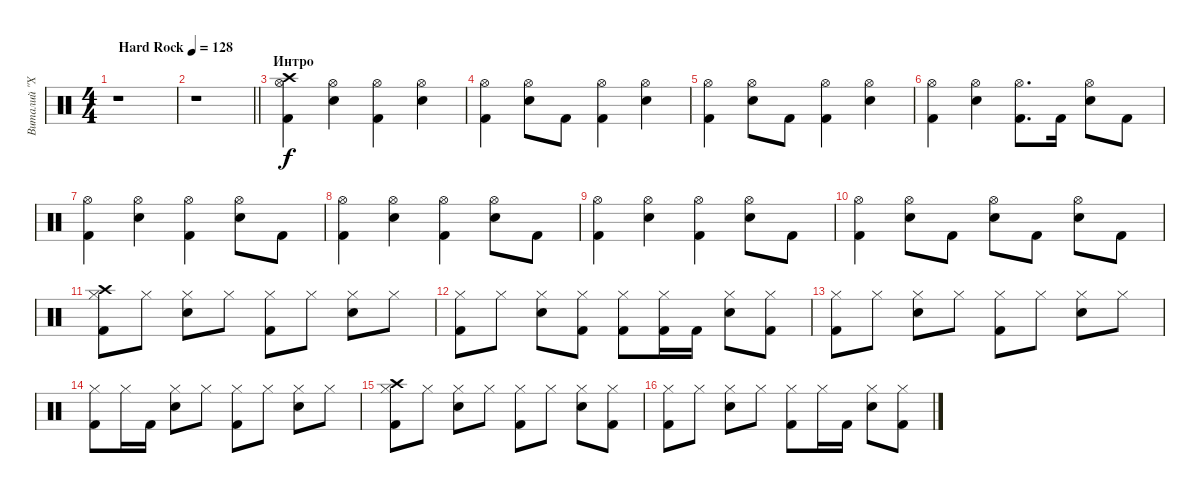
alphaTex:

\track ("Виталий \"Хамер\" Лядов" "Виталий \"Х") {instrument percussion}
\staff {score}
\articulation defaults
\ts (4 4)
\tempo (128 "Hard Rock")
\clef neutral
\ks c
r.1{dy f} |
\barLineRight lightlight
r.1 |
\section ("" "Интро")
("Kick (hit) 2" "Hi-Hat (open)" "Crash high (hit)").4 ("Electric Snare (hit)" "Hi-Hat (open)").4 ("Kick (hit) 2" "Hi-Hat (open)").4 ("Electric Snare (hit)" "Hi-Hat (open)").4 |
("Kick (hit) 2" "Hi-Hat (open)").4 ("Electric Snare (hit)" "Hi-Hat (open)").8 "Kick (hit) 2".8 ("Kick (hit) 2" "Hi-Hat (open)").4 ("Electric Snare (hit)" "Hi-Hat (open)").4 |
("Kick (hit) 2" "Hi-Hat (open)").4 ("Electric Snare (hit)" "Hi-Hat (open)").8 "Kick (hit) 2".8 ("Kick (hit) 2" "Hi-Hat (open)").4 ("Electric Snare (hit)" "Hi-Hat (open)").4 |
("Kick (hit) 2" "Hi-Hat (open)").4 ("Electric Snare (hit)" "Hi-Hat (open)").4 ("Kick (hit) 2" "Hi-Hat (open)").8{d} "Kick (hit) 2".16 ("Electric Snare (hit)" "Hi-Hat (open)").8 "Kick (hit) 2".8 |
("Kick (hit) 2" "Hi-Hat (open)").4 ("Electric Snare (hit)" "Hi-Hat (open)").4 ("Kick (hit) 2" "Hi-Hat (open)").4 ("Electric Snare (hit)" "Hi-Hat (open)").8 "Kick (hit) 2".8 |
("Kick (hit) 2" "Hi-Hat (open)").4 ("Electric Snare (hit)" "Hi-Hat (open)").4 ("Kick (hit) 2" "Hi-Hat (open)").4 ("Electric Snare (hit)" "Hi-Hat (open)").8 "Kick (hit) 2".8 |
("Kick (hit) 2" "Hi-Hat (open)").4 ("Electric Snare (hit)" "Hi-Hat (open)").4 ("Kick (hit) 2" "Hi-Hat (open)").4 ("Electric Snare (hit)" "Hi-Hat (open)").8 "Kick (hit) 2".8 |
("Kick (hit) 2" "Hi-Hat (open)").4 ("Electric Snare (hit)" "Hi-Hat (open)").8 "Kick (hit) 2".8 ("Electric Snare (hit)" "Hi-Hat (open)").8 "Kick (hit) 2".8 ("Electric Snare (hit)" "Hi-Hat (open)").8 "Kick (hit) 2".8 |
("Kick (hit) 2" "Hi-Hat (closed)" "Crash high (hit)").8 "Hi-Hat (closed)".8 ("Electric Snare (hit)" "Hi-Hat (closed)").8 "Hi-Hat (closed)".8 ("Kick (hit) 2" "Hi-Hat (closed)").8 "Hi-Hat (closed)".8 ("Electric Snare (hit)" "Hi-Hat (closed)").8 "Hi-Hat (closed)".8 |
("Kick (hit) 2" "Hi-Hat (closed)").8 "Hi-Hat (closed)".8 ("Electric Snare (hit)" "Hi-Hat (closed)").8 ("Kick (hit) 2" "Hi-Hat (closed)").8 ("Kick (hit) 2" "Hi-Hat (closed)").8 ("Kick (hit) 2" "Hi-Hat (closed)").16 "Kick (hit) 2".16 ("Electric Snare (hit)" "Hi-Hat (closed)").8 ("Kick (hit) 2" "Hi-Hat (closed)").8 |
("Kick (hit) 2" "Hi-Hat (closed)").8 "Hi-Hat (closed)".8 ("Electric Snare (hit)" "Hi-Hat (closed)").8 "Hi-Hat (closed)".8 ("Kick (hit) 2" "Hi-Hat (closed)").8 "Hi-Hat (closed)".8 ("Electric Snare (hit)" "Hi-Hat (closed)").8 "Hi-Hat (closed)".8 |
("Kick (hit) 2" "Hi-Hat (closed)").8 "Hi-Hat (closed)".16 "Kick (hit) 2".16 ("Electric Snare (hit)" "Hi-Hat (closed)").8 "Hi-Hat (closed)".8 ("Kick (hit) 2" "Hi-Hat (closed)").8 "Hi-Hat (closed)".8 ("Electric Snare (hit)" "Hi-Hat (closed)").8 "Hi-Hat (closed)".8 |
("Kick (hit) 2" "Hi-Hat (closed)" "Crash high (hit)").8 "Hi-Hat (closed)".8 ("Electric Snare (hit)" "Hi-Hat (closed)").8 "Hi-Hat (closed)".8 ("Kick (hit) 2" "Hi-Hat (closed)").8 "Hi-Hat (closed)".8 ("Electric Snare (hit)" "Hi-Hat (closed)").8 ("Kick (hit) 2" "Hi-Hat (closed)").8 |
("Kick (hit) 2" "Hi-Hat (closed)").8 "Hi-Hat (closed)".8 ("Electric Snare (hit)" "Hi-Hat (closed)").8 "Hi-Hat (closed)".8 ("Kick (hit) 2" "Hi-Hat (closed)").8 "Hi-Hat (closed)".16 "Kick (hit) 2".16 ("Electric Snare (hit)" "Hi-Hat (closed)").8 ("Kick (hit) 2" "Hi-Hat (closed)").8
